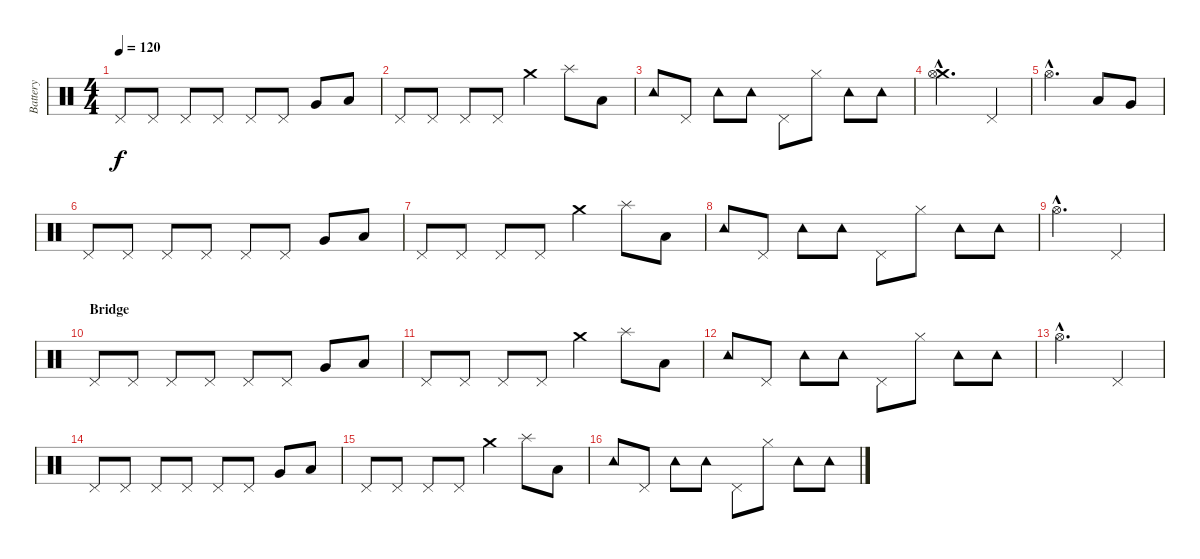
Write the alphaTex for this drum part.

\track ("Battery" "Battery") {instrument percussion}
\staff {score}
\articulation defaults
\ts (4 4)
\tempo 120
\clef neutral
\ks c "Pedal Hi-Hat (hit)".8{dy f} "Pedal Hi-Hat (hit)".8 "Pedal Hi-Hat (hit)".8 "Pedal Hi-Hat (hit)".8 "Pedal Hi-Hat (hit)".8 "Pedal Hi-Hat (hit)".8 "Very Low Tom (hit)".8 "Low Floor Tom (hit)".8
|
"Pedal Hi-Hat (hit)".8 "Pedal Hi-Hat (hit)".8 "Pedal Hi-Hat (hit)".8 "Pedal Hi-Hat (hit)".8 "Crash medium (hit)".4 "Splash (hit)".8 "Low Floor Tom (hit)".8 |
"Tambourine (hit)".8 "Pedal Hi-Hat (hit)".8 "Tambourine (hit)".8 "Tambourine (hit)".8 "Pedal Hi-Hat (hit)".8 "Hi-Hat (closed)".8 "Tambourine (hit)".8 "Tambourine (hit)".8 |
("Crash medium (hit)"{hac} "Hi-Hat (open)"{hac}).2{d} "Pedal Hi-Hat (hit)".4 |
"Hi-Hat (open)"{hac}.2{d} "Low Floor Tom (hit)".8 "Very Low Tom (hit)".8 |
"Pedal Hi-Hat (hit)".8 "Pedal Hi-Hat (hit)".8 "Pedal Hi-Hat (hit)".8 "Pedal Hi-Hat (hit)".8 "Pedal Hi-Hat (hit)".8 "Pedal Hi-Hat (hit)".8 "Very Low Tom (hit)".8 "Low Floor Tom (hit)".8 |
"Pedal Hi-Hat (hit)".8 "Pedal Hi-Hat (hit)".8 "Pedal Hi-Hat (hit)".8 "Pedal Hi-Hat (hit)".8 "Crash medium (hit)".4 "Splash (hit)".8 "Low Floor Tom (hit)".8 |
"Tambourine (hit)".8 "Pedal Hi-Hat (hit)".8 "Tambourine (hit)".8 "Tambourine (hit)".8 "Pedal Hi-Hat (hit)".8 "Hi-Hat (closed)".8 "Tambourine (hit)".8 "Tambourine (hit)".8 |
"Hi-Hat (open)"{hac}.2{d} "Pedal Hi-Hat (hit)".4 |
\section ("" "Bridge")
"Pedal Hi-Hat (hit)".8 "Pedal Hi-Hat (hit)".8 "Pedal Hi-Hat (hit)".8 "Pedal Hi-Hat (hit)".8 "Pedal Hi-Hat (hit)".8 "Pedal Hi-Hat (hit)".8 "Very Low Tom (hit)".8 "Low Floor Tom (hit)".8 |
"Pedal Hi-Hat (hit)".8 "Pedal Hi-Hat (hit)".8 "Pedal Hi-Hat (hit)".8 "Pedal Hi-Hat (hit)".8 "Crash medium (hit)".4 "Splash (hit)".8 "Low Floor Tom (hit)".8 |
"Tambourine (hit)".8 "Pedal Hi-Hat (hit)".8 "Tambourine (hit)".8 "Tambourine (hit)".8 "Pedal Hi-Hat (hit)".8 "Hi-Hat (closed)".8 "Tambourine (hit)".8 "Tambourine (hit)".8 |
"Hi-Hat (open)"{hac}.2{d} "Pedal Hi-Hat (hit)".4 |
"Pedal Hi-Hat (hit)".8 "Pedal Hi-Hat (hit)".8 "Pedal Hi-Hat (hit)".8 "Pedal Hi-Hat (hit)".8 "Pedal Hi-Hat (hit)".8 "Pedal Hi-Hat (hit)".8 "Very Low Tom (hit)".8 "Low Floor Tom (hit)".8 |
"Pedal Hi-Hat (hit)".8 "Pedal Hi-Hat (hit)".8 "Pedal Hi-Hat (hit)".8 "Pedal Hi-Hat (hit)".8 "Crash medium (hit)".4 "Splash (hit)".8 "Low Floor Tom (hit)".8 |
"Tambourine (hit)".8 "Pedal Hi-Hat (hit)".8 "Tambourine (hit)".8 "Tambourine (hit)".8 "Pedal Hi-Hat (hit)".8 "Hi-Hat (closed)".8 "Tambourine (hit)".8 "Tambourine (hit)".8
